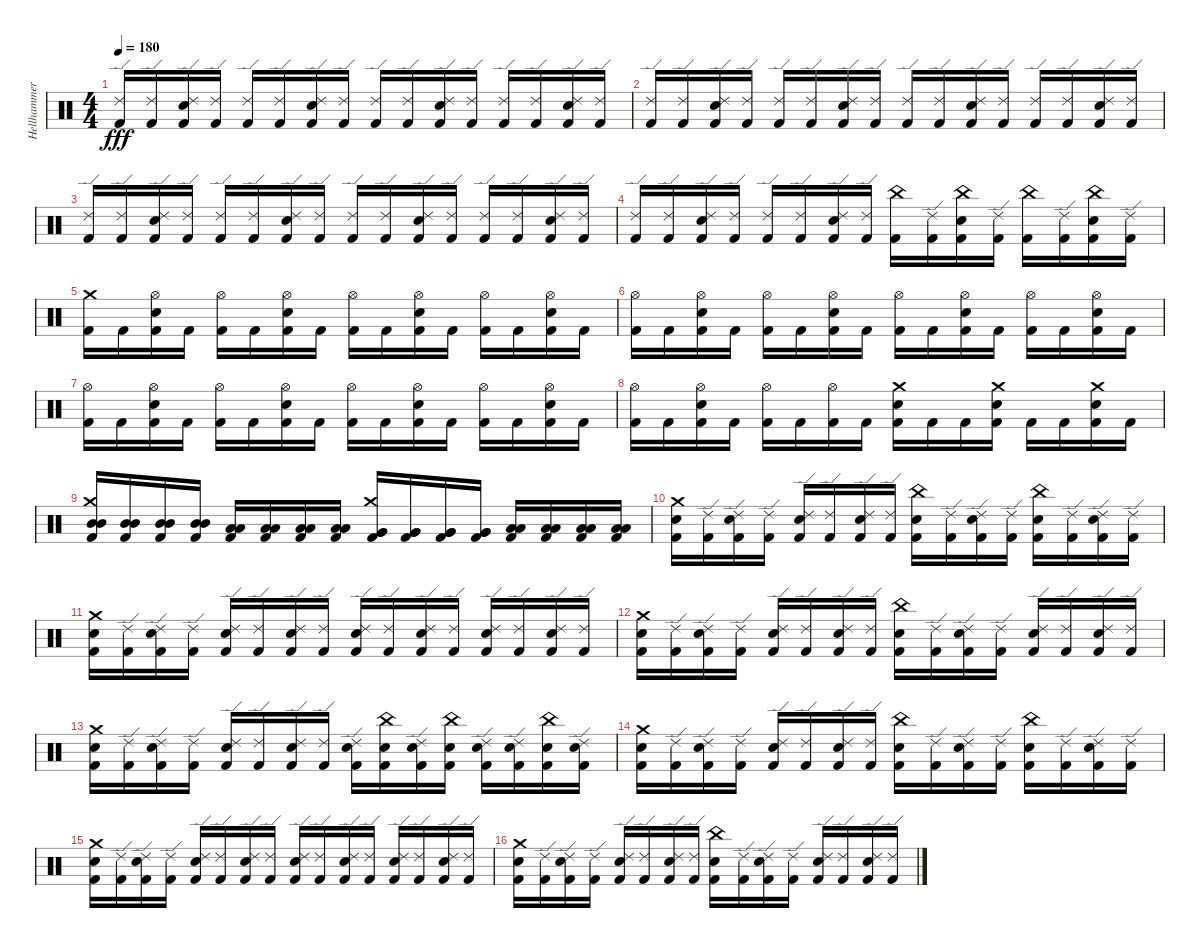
\track ("Hellhammer (Drums)" "Hellhammer") {instrument percussion}
\staff {score}
\articulation defaults
\ts (4 4)
\tempo 180
\clef neutral
\ks c
("Ride (edge) 2" "Kick (hit) 2").16{dy fff} ("Ride (edge) 2" "Kick (hit) 2").16 ("Ride (edge) 2" "Electric Snare (hit)" "Kick (hit) 2").16 ("Ride (edge) 2" "Kick (hit) 2").16 ("Ride (edge) 2" "Kick (hit) 2").16 ("Ride (edge) 2" "Kick (hit) 2").16 ("Ride (edge) 2" "Electric Snare (hit)" "Kick (hit) 2").16 ("Ride (edge) 2" "Kick (hit) 2").16 ("Ride (edge) 2" "Kick (hit) 2").16 ("Ride (edge) 2" "Kick (hit) 2").16 ("Ride (edge) 2" "Electric Snare (hit)" "Kick (hit) 2").16 ("Ride (edge) 2" "Kick (hit) 2").16 ("Ride (edge) 2" "Kick (hit) 2").16 ("Ride (edge) 2" "Kick (hit) 2").16 ("Ride (edge) 2" "Electric Snare (hit)" "Kick (hit) 2").16 ("Ride (edge) 2" "Kick (hit) 2").16 |
("Ride (edge) 2" "Kick (hit) 2").16 ("Ride (edge) 2" "Kick (hit) 2").16 ("Ride (edge) 2" "Electric Snare (hit)" "Kick (hit) 2").16 ("Ride (edge) 2" "Kick (hit) 2").16 ("Ride (edge) 2" "Kick (hit) 2").16 ("Ride (edge) 2" "Kick (hit) 2").16 ("Ride (edge) 2" "Electric Snare (hit)" "Kick (hit) 2").16 ("Ride (edge) 2" "Kick (hit) 2").16 ("Ride (edge) 2" "Kick (hit) 2").16 ("Ride (edge) 2" "Kick (hit) 2").16 ("Ride (edge) 2" "Electric Snare (hit)" "Kick (hit) 2").16 ("Ride (edge) 2" "Kick (hit) 2").16 ("Ride (edge) 2" "Kick (hit) 2").16 ("Ride (edge) 2" "Kick (hit) 2").16 ("Ride (edge) 2" "Electric Snare (hit)" "Kick (hit) 2").16 ("Ride (edge) 2" "Kick (hit) 2").16 |
("Ride (edge) 2" "Kick (hit) 2").16 ("Ride (edge) 2" "Kick (hit) 2").16 ("Ride (edge) 2" "Electric Snare (hit)" "Kick (hit) 2").16 ("Ride (edge) 2" "Kick (hit) 2").16 ("Ride (edge) 2" "Kick (hit) 2").16 ("Ride (edge) 2" "Kick (hit) 2").16 ("Ride (edge) 2" "Electric Snare (hit)" "Kick (hit) 2").16 ("Ride (edge) 2" "Kick (hit) 2").16 ("Ride (edge) 2" "Kick (hit) 2").16 ("Ride (edge) 2" "Kick (hit) 2").16 ("Ride (edge) 2" "Electric Snare (hit)" "Kick (hit) 2").16 ("Ride (edge) 2" "Kick (hit) 2").16 ("Ride (edge) 2" "Kick (hit) 2").16 ("Ride (edge) 2" "Kick (hit) 2").16 ("Ride (edge) 2" "Electric Snare (hit)" "Kick (hit) 2").16 ("Ride (edge) 2" "Kick (hit) 2").16 |
("Ride (edge) 2" "Kick (hit) 2").16 ("Ride (edge) 2" "Kick (hit) 2").16 ("Ride (edge) 2" "Electric Snare (hit)" "Kick (hit) 2").16 ("Ride (edge) 2" "Kick (hit) 2").16 ("Ride (edge) 2" "Kick (hit) 2").16 ("Ride (edge) 2" "Kick (hit) 2").16 ("Ride (edge) 2" "Electric Snare (hit)" "Kick (hit) 2").16 ("Ride (edge) 2" "Kick (hit) 2").16 ("China (hit)" "Kick (hit) 2").16 ("Ride (edge) 2" "Kick (hit) 2").16 ("China (hit)" "Electric Snare (hit)" "Kick (hit) 2").16 ("Ride (edge) 2" "Kick (hit) 2").16 ("China (hit)" "Kick (hit) 2").16 ("Ride (edge) 2" "Kick (hit) 2").16 ("China (hit)" "Electric Snare (hit)" "Kick (hit) 2").16 ("Ride (edge) 2" "Kick (hit) 2").16 |
("Crash medium (hit)" "Kick (hit) 2").16 "Kick (hit) 2".16 ("Hi-Hat (open)" "Electric Snare (hit)" "Kick (hit) 2").16 "Kick (hit) 2".16 ("Hi-Hat (open)" "Kick (hit) 2").16 "Kick (hit) 2".16 ("Hi-Hat (open)" "Electric Snare (hit)" "Kick (hit) 2").16 "Kick (hit) 2".16 ("Hi-Hat (open)" "Kick (hit) 2").16 "Kick (hit) 2".16 ("Hi-Hat (open)" "Electric Snare (hit)" "Kick (hit) 2").16 "Kick (hit) 2".16 ("Hi-Hat (open)" "Kick (hit) 2").16 "Kick (hit) 2".16 ("Hi-Hat (open)" "Electric Snare (hit)" "Kick (hit) 2").16 "Kick (hit) 2".16 |
("Hi-Hat (open)" "Kick (hit) 2").16 "Kick (hit) 2".16 ("Hi-Hat (open)" "Electric Snare (hit)" "Kick (hit) 2").16 "Kick (hit) 2".16 ("Hi-Hat (open)" "Kick (hit) 2").16 "Kick (hit) 2".16 ("Hi-Hat (open)" "Electric Snare (hit)" "Kick (hit) 2").16 "Kick (hit) 2".16 ("Hi-Hat (open)" "Kick (hit) 2").16 "Kick (hit) 2".16 ("Hi-Hat (open)" "Electric Snare (hit)" "Kick (hit) 2").16 "Kick (hit) 2".16 ("Hi-Hat (open)" "Kick (hit) 2").16 "Kick (hit) 2".16 ("Hi-Hat (open)" "Electric Snare (hit)" "Kick (hit) 2").16 "Kick (hit) 2".16 |
("Hi-Hat (open)" "Kick (hit) 2").16 "Kick (hit) 2".16 ("Hi-Hat (open)" "Electric Snare (hit)" "Kick (hit) 2").16 "Kick (hit) 2".16 ("Hi-Hat (open)" "Kick (hit) 2").16 "Kick (hit) 2".16 ("Hi-Hat (open)" "Electric Snare (hit)" "Kick (hit) 2").16 "Kick (hit) 2".16 ("Hi-Hat (open)" "Kick (hit) 2").16 "Kick (hit) 2".16 ("Hi-Hat (open)" "Electric Snare (hit)" "Kick (hit) 2").16 "Kick (hit) 2".16 ("Hi-Hat (open)" "Kick (hit) 2").16 "Kick (hit) 2".16 ("Hi-Hat (open)" "Electric Snare (hit)" "Kick (hit) 2").16 "Kick (hit) 2".16 |
("Hi-Hat (open)" "Kick (hit) 2").16 "Kick (hit) 2".16 ("Hi-Hat (open)" "Electric Snare (hit)" "Kick (hit) 2").16 "Kick (hit) 2".16 ("Hi-Hat (open)" "Kick (hit) 2").16 "Kick (hit) 2".16 ("Hi-Hat (open)" "Kick (hit) 2").16 "Kick (hit) 2".16 ("Crash medium (hit)" "Electric Snare (hit)" "Kick (hit) 2").16 "Kick (hit) 2".16 "Kick (hit) 2".16 ("Crash medium (hit)" "Electric Snare (hit)" "Kick (hit) 2").16 "Kick (hit) 2".16 "Kick (hit) 2".16 ("Crash medium (hit)" "Electric Snare (hit)" "Kick (hit) 2").16 "Kick (hit) 2".16 |
("Crash medium (hit)" "Mid Tom (hit)" "Mid Tom (hit)" "Kick (hit) 2").16 ("Mid Tom (hit)" "Mid Tom (hit)" "Kick (hit) 2").16 ("Mid Tom (hit)" "Mid Tom (hit)" "Kick (hit) 2").16 ("Mid Tom (hit)" "Mid Tom (hit)" "Kick (hit) 2").16 ("Low Tom (hit)" "Low Tom (hit)" "Kick (hit) 2").16 ("Low Tom (hit)" "Low Tom (hit)" "Kick (hit) 2").16 ("Low Tom (hit)" "Low Tom (hit)" "Kick (hit) 2").16 ("Low Tom (hit)" "Low Tom (hit)" "Kick (hit) 2").16 ("Crash medium (hit)" "Very Low Tom (hit)" "Very Low Tom (hit)" "Kick (hit) 2").16 ("Very Low Tom (hit)" "Very Low Tom (hit)" "Kick (hit) 2").16 ("Very Low Tom (hit)" "Very Low Tom (hit)" "Kick (hit) 2").16 ("Very Low Tom (hit)" "Very Low Tom (hit)" "Kick (hit) 2").16 ("Low Floor Tom (hit)" "Low Floor Tom (hit)" "Kick (hit) 2").16 ("Low Floor Tom (hit)" "Low Floor Tom (hit)" "Kick (hit) 2").16 ("Low Floor Tom (hit)" "Low Floor Tom (hit)" "Kick (hit) 2").16 ("Low Floor Tom (hit)" "Low Floor Tom (hit)" "Kick (hit) 2").16 |
("Crash medium (hit)" "Electric Snare (hit)" "Kick (hit) 2").16 ("Ride (edge) 2" "Kick (hit) 2").16 ("Ride (edge) 2" "Electric Snare (hit)" "Kick (hit) 2").16 ("Ride (edge) 2" "Kick (hit) 2").16 ("Ride (edge) 2" "Electric Snare (hit)" "Kick (hit) 2").16 ("Ride (edge) 2" "Kick (hit) 2").16 ("Ride (edge) 2" "Electric Snare (hit)" "Kick (hit) 2").16 ("Ride (edge) 2" "Kick (hit) 2").16 ("China (hit)" "Electric Snare (hit)" "Kick (hit) 2").16 ("Ride (edge) 2" "Kick (hit) 2").16 ("Ride (edge) 2" "Electric Snare (hit)" "Kick (hit) 2").16 ("Ride (edge) 2" "Kick (hit) 2").16 ("China (hit)" "Electric Snare (hit)" "Kick (hit) 2").16 ("Ride (edge) 2" "Kick (hit) 2").16 ("Ride (edge) 2" "Electric Snare (hit)" "Kick (hit) 2").16 ("Ride (edge) 2" "Kick (hit) 2").16 |
("Crash medium (hit)" "Electric Snare (hit)" "Kick (hit) 2").16 ("Ride (edge) 2" "Kick (hit) 2").16 ("Ride (edge) 2" "Electric Snare (hit)" "Kick (hit) 2").16 ("Ride (edge) 2" "Kick (hit) 2").16 ("Ride (edge) 2" "Electric Snare (hit)" "Kick (hit) 2").16 ("Ride (edge) 2" "Kick (hit) 2").16 ("Ride (edge) 2" "Electric Snare (hit)" "Kick (hit) 2").16 ("Ride (edge) 2" "Kick (hit) 2").16 ("Ride (edge) 2" "Electric Snare (hit)" "Kick (hit) 2").16 ("Ride (edge) 2" "Kick (hit) 2").16 ("Ride (edge) 2" "Electric Snare (hit)" "Kick (hit) 2").16 ("Ride (edge) 2" "Kick (hit) 2").16 ("Ride (edge) 2" "Electric Snare (hit)" "Kick (hit) 2").16 ("Ride (edge) 2" "Kick (hit) 2").16 ("Ride (edge) 2" "Electric Snare (hit)" "Kick (hit) 2").16 ("Ride (edge) 2" "Kick (hit) 2").16 |
("Crash medium (hit)" "Electric Snare (hit)" "Kick (hit) 2").16 ("Ride (edge) 2" "Kick (hit) 2").16 ("Ride (edge) 2" "Electric Snare (hit)" "Kick (hit) 2").16 ("Ride (edge) 2" "Kick (hit) 2").16 ("Ride (edge) 2" "Electric Snare (hit)" "Kick (hit) 2").16 ("Ride (edge) 2" "Kick (hit) 2").16 ("Ride (edge) 2" "Electric Snare (hit)" "Kick (hit) 2").16 ("Ride (edge) 2" "Kick (hit) 2").16 ("China (hit)" "Electric Snare (hit)" "Kick (hit) 2").16 ("Ride (edge) 2" "Kick (hit) 2").16 ("Ride (edge) 2" "Electric Snare (hit)" "Kick (hit) 2").16 ("Ride (edge) 2" "Kick (hit) 2").16 ("Ride (edge) 2" "Electric Snare (hit)" "Kick (hit) 2").16 ("Ride (edge) 2" "Kick (hit) 2").16 ("Ride (edge) 2" "Electric Snare (hit)" "Kick (hit) 2").16 ("Ride (edge) 2" "Kick (hit) 2").16 |
("Crash medium (hit)" "Electric Snare (hit)" "Kick (hit) 2").16 ("Ride (edge) 2" "Kick (hit) 2").16 ("Ride (edge) 2" "Electric Snare (hit)" "Kick (hit) 2").16 ("Ride (edge) 2" "Kick (hit) 2").16 ("Ride (edge) 2" "Electric Snare (hit)" "Kick (hit) 2").16 ("Ride (edge) 2" "Kick (hit) 2").16 ("Ride (edge) 2" "Electric Snare (hit)" "Kick (hit) 2").16 ("Ride (edge) 2" "Kick (hit) 2").16 ("Ride (edge) 2" "Electric Snare (hit)" "Kick (hit) 2").16 ("China (hit)" "Electric Snare (hit)" "Kick (hit) 2").16 ("Ride (edge) 2" "Electric Snare (hit)" "Kick (hit) 2").16 ("China (hit)" "Electric Snare (hit)" "Kick (hit) 2").16 ("Ride (edge) 2" "Electric Snare (hit)" "Kick (hit) 2").16 ("Ride (edge) 2" "Electric Snare (hit)" "Kick (hit) 2").16 ("China (hit)" "Electric Snare (hit)" "Kick (hit) 2").16 ("Ride (edge) 2" "Electric Snare (hit)" "Kick (hit) 2").16 |
("Crash medium (hit)" "Electric Snare (hit)" "Kick (hit) 2").16 ("Ride (edge) 2" "Kick (hit) 2").16 ("Ride (edge) 2" "Electric Snare (hit)" "Kick (hit) 2").16 ("Ride (edge) 2" "Kick (hit) 2").16 ("Ride (edge) 2" "Electric Snare (hit)" "Kick (hit) 2").16 ("Ride (edge) 2" "Kick (hit) 2").16 ("Ride (edge) 2" "Electric Snare (hit)" "Kick (hit) 2").16 ("Ride (edge) 2" "Kick (hit) 2").16 ("China (hit)" "Electric Snare (hit)" "Kick (hit) 2").16 ("Ride (edge) 2" "Kick (hit) 2").16 ("Ride (edge) 2" "Electric Snare (hit)" "Kick (hit) 2").16 ("Ride (edge) 2" "Kick (hit) 2").16 ("China (hit)" "Electric Snare (hit)" "Kick (hit) 2").16 ("Ride (edge) 2" "Kick (hit) 2").16 ("Ride (edge) 2" "Electric Snare (hit)" "Kick (hit) 2").16 ("Ride (edge) 2" "Kick (hit) 2").16 |
("Crash medium (hit)" "Electric Snare (hit)" "Kick (hit) 2").16 ("Ride (edge) 2" "Kick (hit) 2").16 ("Ride (edge) 2" "Electric Snare (hit)" "Kick (hit) 2").16 ("Ride (edge) 2" "Kick (hit) 2").16 ("Ride (edge) 2" "Electric Snare (hit)" "Kick (hit) 2").16 ("Ride (edge) 2" "Kick (hit) 2").16 ("Ride (edge) 2" "Electric Snare (hit)" "Kick (hit) 2").16 ("Ride (edge) 2" "Kick (hit) 2").16 ("Ride (edge) 2" "Electric Snare (hit)" "Kick (hit) 2").16 ("Ride (edge) 2" "Kick (hit) 2").16 ("Ride (edge) 2" "Electric Snare (hit)" "Kick (hit) 2").16 ("Ride (edge) 2" "Kick (hit) 2").16 ("Ride (edge) 2" "Electric Snare (hit)" "Kick (hit) 2").16 ("Ride (edge) 2" "Kick (hit) 2").16 ("Ride (edge) 2" "Electric Snare (hit)" "Kick (hit) 2").16 ("Ride (edge) 2" "Kick (hit) 2").16 |
("Crash medium (hit)" "Electric Snare (hit)" "Kick (hit) 2").16 ("Ride (edge) 2" "Kick (hit) 2").16 ("Ride (edge) 2" "Electric Snare (hit)" "Kick (hit) 2").16 ("Ride (edge) 2" "Kick (hit) 2").16 ("Ride (edge) 2" "Electric Snare (hit)" "Kick (hit) 2").16 ("Ride (edge) 2" "Kick (hit) 2").16 ("Ride (edge) 2" "Electric Snare (hit)" "Kick (hit) 2").16 ("Ride (edge) 2" "Kick (hit) 2").16 ("China (hit)" "Electric Snare (hit)" "Kick (hit) 2").16 ("Ride (edge) 2" "Kick (hit) 2").16 ("Ride (edge) 2" "Electric Snare (hit)" "Kick (hit) 2").16 ("Ride (edge) 2" "Kick (hit) 2").16 ("Ride (edge) 2" "Electric Snare (hit)" "Kick (hit) 2").16 ("Ride (edge) 2" "Kick (hit) 2").16 ("Ride (edge) 2" "Electric Snare (hit)" "Kick (hit) 2").16 ("Ride (edge) 2" "Kick (hit) 2").16
